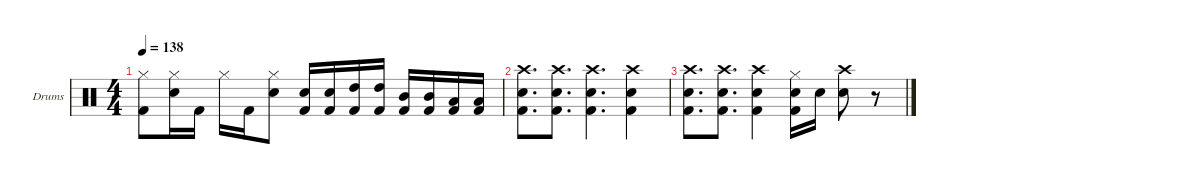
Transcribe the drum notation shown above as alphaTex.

\hideDynamics
\bracketExtendMode nobrackets
\firstSystemTrackNameOrientation horizontal
\otherSystemsTrackNameOrientation horizontal
\track ("Drumkit" "Drums") {instrument percussion}
\staff {score}
\articulation defaults
\ts (4 4)
\tempo 138
\clef neutral
\ks c
("Hi-Hat (closed)" "Kick (hit) 2").8{dy f beam Down} ("Snare (hit) 2" "Hi-Hat (closed)").16{beam Down} "Kick (hit) 2".16{beam Down} "Hi-Hat (closed)".16{beam Down} "Kick (hit) 2".16{beam Down} ("Snare (hit) 2" "Hi-Hat (closed)").8{beam Down} ("Snare (hit) 2" "Kick (hit) 2").16{beam Up} ("Snare (hit) 2" "Kick (hit) 2").16{beam Up} ("High Tom (hit)" "Kick (hit) 2").16{beam Up} ("High Tom (hit)" "Kick (hit) 2").16{beam Up} ("Mid Tom (hit)" "Kick (hit) 2").16{beam Up} ("Mid Tom (hit)" "Kick (hit) 2").16{beam Up} ("Low Tom (hit)" "Kick (hit) 2").16{beam Up} ("Low Tom (hit)" "Kick (hit) 2").16{beam Up} |
("Crash high (hit)" "Snare (hit) 2" "Kick (hit) 2").8{d beam Down} ("Crash high (hit)" "Snare (hit) 2" "Kick (hit) 2").8{d beam Down} ("Crash high (hit)" "Snare (hit) 2" "Kick (hit) 2").4{d beam Down} ("Crash high (hit)" "Snare (hit) 2" "Kick (hit) 2").4{beam Down} |
("Crash high (hit)" "Snare (hit) 2" "Kick (hit) 2").8{d beam Down} ("Crash high (hit)" "Snare (hit) 2" "Kick (hit) 2").8{d beam Down} ("Crash high (hit)" "Snare (hit) 2" "Kick (hit) 2").4{beam Down} ("Hi-Hat (closed)" "Snare (hit) 2" "Kick (hit) 2").16{beam Down} "Snare (hit) 2".16{beam Down} ("Crash high (hit)" "Snare (hit) 2").8{beam Down} r.8{beam Down}
